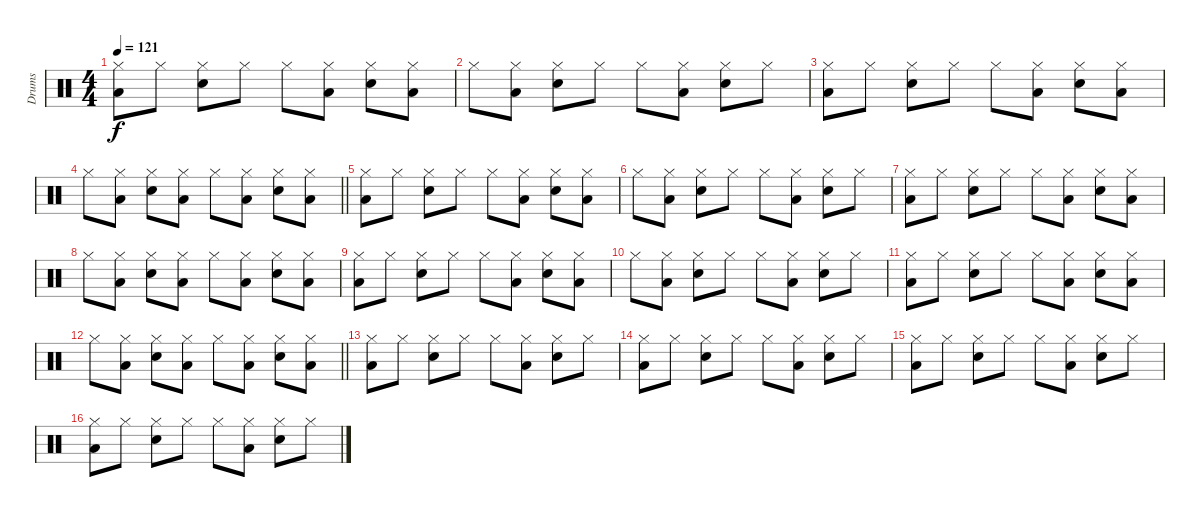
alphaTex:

\track ("Drums" "Drums") {instrument percussion}
\staff {score}
\articulation defaults
\ts (4 4)
\tempo 121
\clef neutral
\ks c
("Hi-Hat (closed)" "Low Floor Tom (hit)").8{dy f} "Hi-Hat (closed)".8 ("Hi-Hat (closed)" "Electric Snare (hit)").8 "Hi-Hat (closed)".8 "Hi-Hat (closed)".8 ("Hi-Hat (closed)" "Low Floor Tom (hit)").8 ("Hi-Hat (closed)" "Electric Snare (hit)").8 ("Hi-Hat (closed)" "Low Floor Tom (hit)").8 |
"Hi-Hat (closed)".8 ("Hi-Hat (closed)" "Low Floor Tom (hit)").8 ("Hi-Hat (closed)" "Electric Snare (hit)").8 "Hi-Hat (closed)".8 "Hi-Hat (closed)".8 ("Hi-Hat (closed)" "Low Floor Tom (hit)").8 ("Hi-Hat (closed)" "Electric Snare (hit)").8 "Hi-Hat (closed)".8 |
("Hi-Hat (closed)" "Low Floor Tom (hit)").8 "Hi-Hat (closed)".8 ("Hi-Hat (closed)" "Electric Snare (hit)").8 "Hi-Hat (closed)".8 "Hi-Hat (closed)".8 ("Hi-Hat (closed)" "Low Floor Tom (hit)").8 ("Hi-Hat (closed)" "Electric Snare (hit)").8 ("Hi-Hat (closed)" "Low Floor Tom (hit)").8 |
\barLineRight lightlight "Hi-Hat (closed)".8
("Hi-Hat (closed)" "Low Floor Tom (hit)").8 ("Hi-Hat (closed)" "Electric Snare (hit)").8 ("Hi-Hat (closed)" "Low Floor Tom (hit)").8 "Hi-Hat (closed)".8 ("Hi-Hat (closed)" "Low Floor Tom (hit)").8 ("Hi-Hat (closed)" "Electric Snare (hit)").8 ("Hi-Hat (closed)" "Low Floor Tom (hit)").8 |
("Hi-Hat (closed)" "Low Floor Tom (hit)").8 "Hi-Hat (closed)".8 ("Hi-Hat (closed)" "Electric Snare (hit)").8 "Hi-Hat (closed)".8 "Hi-Hat (closed)".8 ("Hi-Hat (closed)" "Low Floor Tom (hit)").8 ("Hi-Hat (closed)" "Electric Snare (hit)").8 ("Hi-Hat (closed)" "Low Floor Tom (hit)").8 |
"Hi-Hat (closed)".8 ("Hi-Hat (closed)" "Low Floor Tom (hit)").8 ("Hi-Hat (closed)" "Electric Snare (hit)").8 "Hi-Hat (closed)".8 "Hi-Hat (closed)".8 ("Hi-Hat (closed)" "Low Floor Tom (hit)").8 ("Hi-Hat (closed)" "Electric Snare (hit)").8 "Hi-Hat (closed)".8 |
("Hi-Hat (closed)" "Low Floor Tom (hit)").8 "Hi-Hat (closed)".8 ("Hi-Hat (closed)" "Electric Snare (hit)").8 "Hi-Hat (closed)".8 "Hi-Hat (closed)".8 ("Hi-Hat (closed)" "Low Floor Tom (hit)").8 ("Hi-Hat (closed)" "Electric Snare (hit)").8 ("Hi-Hat (closed)" "Low Floor Tom (hit)").8 |
"Hi-Hat (closed)".8 ("Hi-Hat (closed)" "Low Floor Tom (hit)").8 ("Hi-Hat (closed)" "Electric Snare (hit)").8 ("Hi-Hat (closed)" "Low Floor Tom (hit)").8 "Hi-Hat (closed)".8 ("Hi-Hat (closed)" "Low Floor Tom (hit)").8 ("Hi-Hat (closed)" "Electric Snare (hit)").8 ("Hi-Hat (closed)" "Low Floor Tom (hit)").8 |
("Hi-Hat (closed)" "Low Floor Tom (hit)").8 "Hi-Hat (closed)".8 ("Hi-Hat (closed)" "Electric Snare (hit)").8 "Hi-Hat (closed)".8 "Hi-Hat (closed)".8 ("Hi-Hat (closed)" "Low Floor Tom (hit)").8 ("Hi-Hat (closed)" "Electric Snare (hit)").8 ("Hi-Hat (closed)" "Low Floor Tom (hit)").8 |
"Hi-Hat (closed)".8 ("Hi-Hat (closed)" "Low Floor Tom (hit)").8 ("Hi-Hat (closed)" "Electric Snare (hit)").8 "Hi-Hat (closed)".8 "Hi-Hat (closed)".8 ("Hi-Hat (closed)" "Low Floor Tom (hit)").8 ("Hi-Hat (closed)" "Electric Snare (hit)").8 "Hi-Hat (closed)".8 |
("Hi-Hat (closed)" "Low Floor Tom (hit)").8 "Hi-Hat (closed)".8 ("Hi-Hat (closed)" "Electric Snare (hit)").8 "Hi-Hat (closed)".8 "Hi-Hat (closed)".8 ("Hi-Hat (closed)" "Low Floor Tom (hit)").8 ("Hi-Hat (closed)" "Electric Snare (hit)").8 ("Hi-Hat (closed)" "Low Floor Tom (hit)").8 |
\barLineRight lightlight "Hi-Hat (closed)".8
("Hi-Hat (closed)" "Low Floor Tom (hit)").8 ("Hi-Hat (closed)" "Electric Snare (hit)").8 ("Hi-Hat (closed)" "Low Floor Tom (hit)").8 "Hi-Hat (closed)".8 ("Hi-Hat (closed)" "Low Floor Tom (hit)").8 ("Hi-Hat (closed)" "Electric Snare (hit)").8 ("Hi-Hat (closed)" "Low Floor Tom (hit)").8 |
("Hi-Hat (closed)" "Low Floor Tom (hit)").8 "Hi-Hat (closed)".8 ("Hi-Hat (closed)" "Electric Snare (hit)").8 "Hi-Hat (closed)".8 "Hi-Hat (closed)".8 ("Hi-Hat (closed)" "Low Floor Tom (hit)").8 ("Hi-Hat (closed)" "Electric Snare (hit)").8 "Hi-Hat (closed)".8 |
("Hi-Hat (closed)" "Low Floor Tom (hit)").8 "Hi-Hat (closed)".8 ("Hi-Hat (closed)" "Electric Snare (hit)").8 "Hi-Hat (closed)".8 "Hi-Hat (closed)".8 ("Hi-Hat (closed)" "Low Floor Tom (hit)").8 ("Hi-Hat (closed)" "Electric Snare (hit)").8 "Hi-Hat (closed)".8 |
("Hi-Hat (closed)" "Low Floor Tom (hit)").8 "Hi-Hat (closed)".8 ("Hi-Hat (closed)" "Electric Snare (hit)").8 "Hi-Hat (closed)".8 "Hi-Hat (closed)".8 ("Hi-Hat (closed)" "Low Floor Tom (hit)").8 ("Hi-Hat (closed)" "Electric Snare (hit)").8 "Hi-Hat (closed)".8 |
("Hi-Hat (closed)" "Low Floor Tom (hit)").8 "Hi-Hat (closed)".8 ("Hi-Hat (closed)" "Electric Snare (hit)").8 "Hi-Hat (closed)".8 "Hi-Hat (closed)".8 ("Hi-Hat (closed)" "Low Floor Tom (hit)").8 ("Hi-Hat (closed)" "Electric Snare (hit)").8 "Hi-Hat (closed)".8
